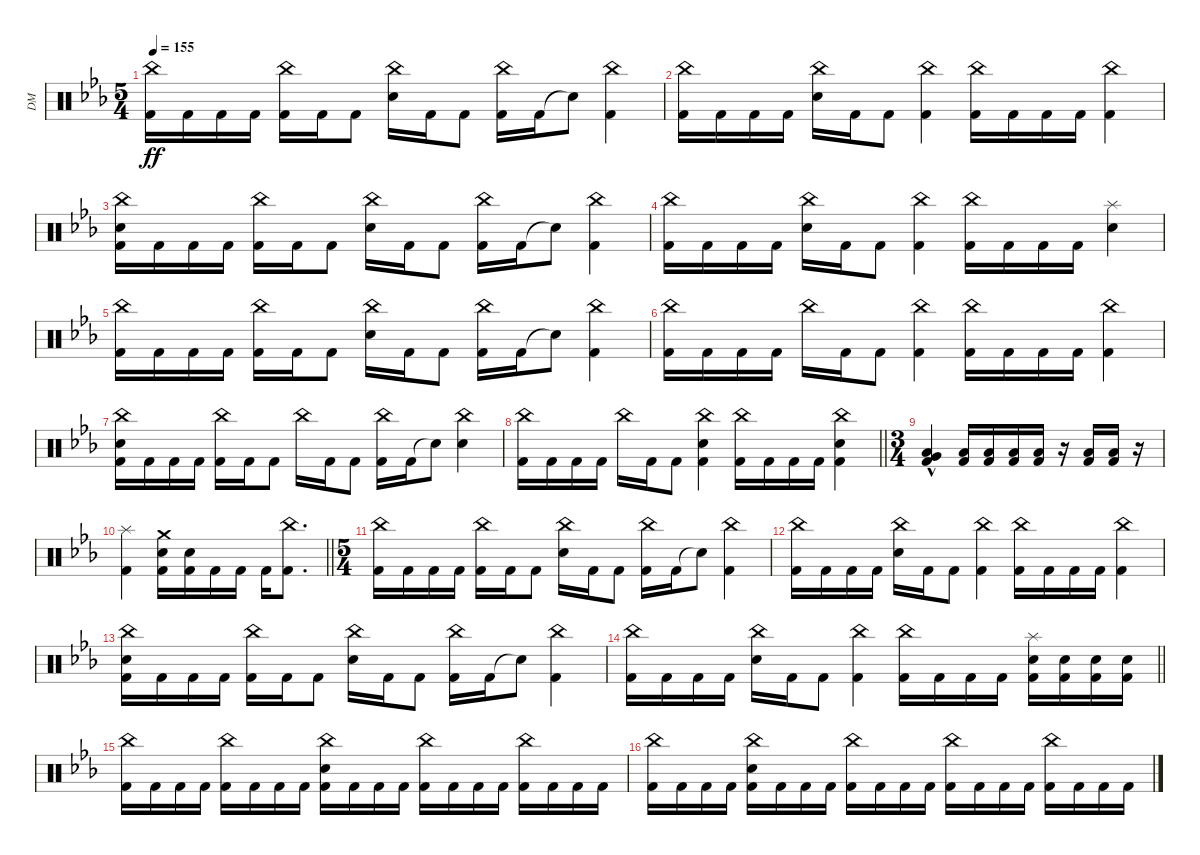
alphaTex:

\track ("DM" "DM") {instrument percussion}
\staff {score}
\articulation defaults
\ts (5 4)
\section ("" "")
\tempo 155
\clef neutral
\ks cminor
("China (hit)" "Kick (hit) 2").16{dy ff} "Kick (hit) 2".16 "Kick (hit) 2".16 "Kick (hit) 2".16 ("China (hit)" "Kick (hit) 2").16 "Kick (hit) 2".16 "Kick (hit) 2".8 ("China (hit)" "Electric Snare (hit)").16 "Kick (hit) 2".16 "Kick (hit) 2".8 ("China (hit)" "Kick (hit) 2").16 "Kick (hit) 2".16 "Snare (hit)"{t}.8 ("China (hit)" "Kick (hit) 2").4 |
("China (hit)" "Kick (hit) 2").16 "Kick (hit) 2".16 "Kick (hit) 2".16 "Kick (hit) 2".16 ("China (hit)" "Electric Snare (hit)").16 "Kick (hit) 2".16 "Kick (hit) 2".8 ("China (hit)" "Kick (hit) 2").4 ("China (hit)" "Kick (hit) 2").16 "Kick (hit) 2".16 "Kick (hit) 2".16 "Kick (hit) 2".16 ("China (hit)" "Kick (hit) 2").4 |
("China (hit)" "Electric Snare (hit)" "Kick (hit) 2").16 "Kick (hit) 2".16 "Kick (hit) 2".16 "Kick (hit) 2".16 ("China (hit)" "Kick (hit) 2").16 "Kick (hit) 2".16 "Kick (hit) 2".8 ("China (hit)" "Electric Snare (hit)").16 "Kick (hit) 2".16 "Kick (hit) 2".8 ("China (hit)" "Kick (hit) 2").16 "Kick (hit) 2".16 "Snare (hit)"{t}.8 ("China (hit)" "Kick (hit) 2").4 |
("China (hit)" "Kick (hit) 2").16 "Kick (hit) 2".16 "Kick (hit) 2".16 "Kick (hit) 2".16 ("China (hit)" "Electric Snare (hit)").16 "Kick (hit) 2".16 "Kick (hit) 2".8 ("China (hit)" "Kick (hit) 2").4 ("China (hit)" "Kick (hit) 2").16 "Kick (hit) 2".16 "Kick (hit) 2".16 "Kick (hit) 2".16 ("Splash (hit)" "Electric Snare (hit)").4 |
("China (hit)" "Kick (hit) 2").16 "Kick (hit) 2".16 "Kick (hit) 2".16 "Kick (hit) 2".16 ("China (hit)" "Kick (hit) 2").16 "Kick (hit) 2".16 "Kick (hit) 2".8 ("China (hit)" "Electric Snare (hit)").16 "Kick (hit) 2".16 "Kick (hit) 2".8 ("China (hit)" "Kick (hit) 2").16 "Kick (hit) 2".16 "Snare (hit)"{t}.8 ("China (hit)" "Kick (hit) 2").4 |
("China (hit)" "Kick (hit) 2").16 "Kick (hit) 2".16 "Kick (hit) 2".16 "Kick (hit) 2".16 "China (hit)".16 "Kick (hit) 2".16 "Kick (hit) 2".8 ("China (hit)" "Kick (hit) 2").4 ("China (hit)" "Kick (hit) 2").16 "Kick (hit) 2".16 "Kick (hit) 2".16 "Kick (hit) 2".16 ("China (hit)" "Kick (hit) 2").4 |
("China (hit)" "Electric Snare (hit)" "Kick (hit) 2").16 "Kick (hit) 2".16 "Kick (hit) 2".16 "Kick (hit) 2".16 ("China (hit)" "Kick (hit) 2").16 "Kick (hit) 2".16 "Kick (hit) 2".8 "China (hit)".16 "Kick (hit) 2".16 "Kick (hit) 2".8 ("China (hit)" "Kick (hit) 2").16 "Kick (hit) 2".16 "Snare (hit)"{t}.8 ("China (hit)" "Electric Snare (hit)").4 |
\barLineRight lightlight
("China (hit)" "Kick (hit) 2").16 "Kick (hit) 2".16 "Kick (hit) 2".16 "Kick (hit) 2".16 "China (hit)".16 "Kick (hit) 2".16 "Kick (hit) 2".8 ("China (hit)" "Electric Snare (hit)" "Kick (hit) 2").4 ("China (hit)" "Kick (hit) 2").16 "Kick (hit) 2".16 "Kick (hit) 2".16 "Kick (hit) 2".16 ("China (hit)" "Electric Snare (hit)" "Kick (hit) 2").4 |
\ts (3 4)
\section ("" "")
("Very Low Tom (hit)"{hac} "Low Floor Tom (hit)"{hac} "Kick (hit) 2"{hac}).4 ("Low Tom (hit)" "Kick (hit) 2").16 ("Low Tom (hit)" "Kick (hit) 2").16 ("Low Tom (hit)" "Kick (hit) 2").16 ("Low Tom (hit)" "Kick (hit) 2").16 r.16 ("Low Tom (hit)" "Kick (hit) 2").16 ("Low Tom (hit)" "Kick (hit) 2").16 r.16 |
\barLineRight lightlight
("Splash (hit)" "Kick (hit) 2").4 ("Crash medium (hit)" "Electric Snare (hit)" "Kick (hit) 2").16 ("Electric Snare (hit)" "Kick (hit) 2").16 "Kick (hit) 2".16 "Kick (hit) 2".16 "Kick (hit) 2".16 ("China (hit)" "Kick (hit) 2").8{d} |
\ts (5 4)
\section ("" "")
("China (hit)" "Kick (hit) 2").16 "Kick (hit) 2".16 "Kick (hit) 2".16 "Kick (hit) 2".16 ("China (hit)" "Kick (hit) 2").16 "Kick (hit) 2".16 "Kick (hit) 2".8 ("China (hit)" "Electric Snare (hit)").16 "Kick (hit) 2".16 "Kick (hit) 2".8 ("China (hit)" "Kick (hit) 2").16 "Kick (hit) 2".16 "Snare (hit)"{t}.8 ("China (hit)" "Kick (hit) 2").4 |
("China (hit)" "Kick (hit) 2").16 "Kick (hit) 2".16 "Kick (hit) 2".16 "Kick (hit) 2".16 ("China (hit)" "Electric Snare (hit)").16 "Kick (hit) 2".16 "Kick (hit) 2".8 ("China (hit)" "Kick (hit) 2").4 ("China (hit)" "Kick (hit) 2").16 "Kick (hit) 2".16 "Kick (hit) 2".16 "Kick (hit) 2".16 ("China (hit)" "Kick (hit) 2").4 |
("China (hit)" "Electric Snare (hit)" "Kick (hit) 2").16 "Kick (hit) 2".16 "Kick (hit) 2".16 "Kick (hit) 2".16 ("China (hit)" "Kick (hit) 2").16 "Kick (hit) 2".16 "Kick (hit) 2".8 ("China (hit)" "Electric Snare (hit)").16 "Kick (hit) 2".16 "Kick (hit) 2".8 ("China (hit)" "Kick (hit) 2").16 "Kick (hit) 2".16 "Snare (hit)"{t}.8 ("China (hit)" "Kick (hit) 2").4 |
\barLineRight lightlight
("China (hit)" "Kick (hit) 2").16 "Kick (hit) 2".16 "Kick (hit) 2".16 "Kick (hit) 2".16 ("China (hit)" "Electric Snare (hit)").16 "Kick (hit) 2".16 "Kick (hit) 2".8 ("China (hit)" "Kick (hit) 2").4 ("China (hit)" "Kick (hit) 2").16 "Kick (hit) 2".16 "Kick (hit) 2".16 "Kick (hit) 2".16 ("Splash (hit)" "Electric Snare (hit)" "Kick (hit) 2").16 ("Electric Snare (hit)" "Kick (hit) 2").16 ("Electric Snare (hit)" "Kick (hit) 2").16 ("Electric Snare (hit)" "Kick (hit) 2").16 |
\section ("" "")
("China (hit)" "Kick (hit) 2").16 "Kick (hit) 2".16 "Kick (hit) 2".16 "Kick (hit) 2".16 ("China (hit)" "Kick (hit) 2").16 "Kick (hit) 2".16 "Kick (hit) 2".16 "Kick (hit) 2".16 ("China (hit)" "Electric Snare (hit)" "Kick (hit) 2").16 "Kick (hit) 2".16 "Kick (hit) 2".16 "Kick (hit) 2".16 ("China (hit)" "Kick (hit) 2").16 "Kick (hit) 2".16 "Kick (hit) 2".16 "Kick (hit) 2".16 ("China (hit)" "Kick (hit) 2").16 "Kick (hit) 2".16 "Kick (hit) 2".16 "Kick (hit) 2".16 |
("China (hit)" "Kick (hit) 2").16 "Kick (hit) 2".16 "Kick (hit) 2".16 "Kick (hit) 2".16 ("China (hit)" "Electric Snare (hit)" "Kick (hit) 2").16 "Kick (hit) 2".16 "Kick (hit) 2".16 "Kick (hit) 2".16 ("China (hit)" "Kick (hit) 2").16 "Kick (hit) 2".16 "Kick (hit) 2".16 "Kick (hit) 2".16 ("China (hit)" "Kick (hit) 2").16 "Kick (hit) 2".16 "Kick (hit) 2".16 "Kick (hit) 2".16 ("China (hit)" "Kick (hit) 2").16 "Kick (hit) 2".16 "Kick (hit) 2".16 "Kick (hit) 2".16
